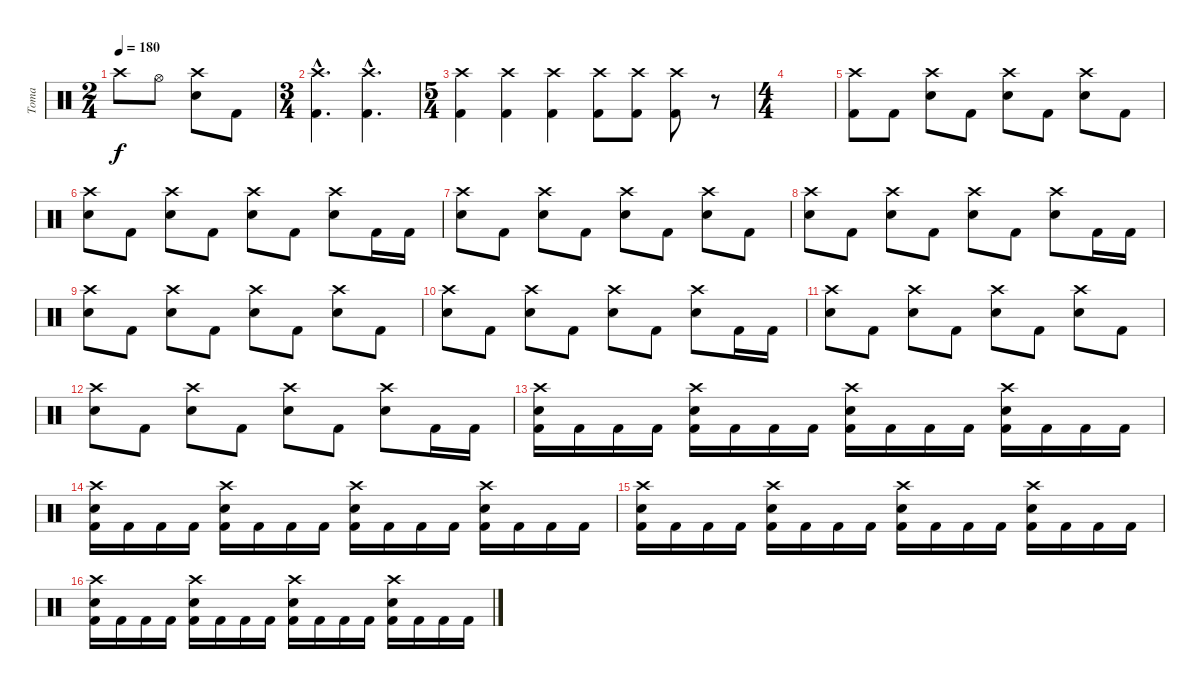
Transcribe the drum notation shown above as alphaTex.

\track ("Toma" "Toma") {instrument percussion}
\staff {score}
\articulation defaults
\ts (2 4)
\tempo 180
\clef neutral
\ks c "Crash high (hit)".8{dy f} "Hi-Hat (open)".8
("Crash high (hit)" "Snare (hit)").8 "Kick (hit) 2".8 |
\ts (3 4)
("Crash high (hit)"{hac} "Kick (hit) 2"{hac}).4{d} ("Crash high (hit)"{hac} "Kick (hit) 2"{hac}).4{d} |
\ts (5 4)
("Crash high (hit)" "Kick (hit) 2").4 ("Crash high (hit)" "Kick (hit) 2").4 ("Crash high (hit)" "Kick (hit) 2").4 ("Crash high (hit)" "Kick (hit) 2").8 ("Crash high (hit)" "Kick (hit) 2").8 ("Crash high (hit)" "Kick (hit) 2").8 r.8 |
\ts (4 4)
|
("Crash high (hit)" "Kick (hit) 2").8 "Kick (hit) 2".8 ("Crash high (hit)" "Electric Snare (hit)").8 "Kick (hit) 2".8 ("Crash high (hit)" "Electric Snare (hit)").8 "Kick (hit) 2".8 ("Crash high (hit)" "Electric Snare (hit)").8 "Kick (hit) 2".8 |
("Crash high (hit)" "Electric Snare (hit)").8 "Kick (hit) 2".8 ("Crash high (hit)" "Electric Snare (hit)").8 "Kick (hit) 2".8 ("Crash high (hit)" "Electric Snare (hit)").8 "Kick (hit) 2".8 ("Crash high (hit)" "Electric Snare (hit)").8 "Kick (hit) 2".16 "Kick (hit) 2".16 |
("Crash high (hit)" "Electric Snare (hit)").8 "Kick (hit) 2".8 ("Crash high (hit)" "Electric Snare (hit)").8 "Kick (hit) 2".8 ("Crash high (hit)" "Electric Snare (hit)").8 "Kick (hit) 2".8 ("Crash high (hit)" "Electric Snare (hit)").8 "Kick (hit) 2".8 |
("Crash high (hit)" "Electric Snare (hit)").8 "Kick (hit) 2".8 ("Crash high (hit)" "Electric Snare (hit)").8 "Kick (hit) 2".8 ("Crash high (hit)" "Electric Snare (hit)").8 "Kick (hit) 2".8 ("Crash high (hit)" "Electric Snare (hit)").8 "Kick (hit) 2".16 "Kick (hit) 2".16 |
("Crash high (hit)" "Electric Snare (hit)").8 "Kick (hit) 2".8 ("Crash high (hit)" "Electric Snare (hit)").8 "Kick (hit) 2".8 ("Crash high (hit)" "Electric Snare (hit)").8 "Kick (hit) 2".8 ("Crash high (hit)" "Electric Snare (hit)").8 "Kick (hit) 2".8 |
("Crash high (hit)" "Electric Snare (hit)").8 "Kick (hit) 2".8 ("Crash high (hit)" "Electric Snare (hit)").8 "Kick (hit) 2".8 ("Crash high (hit)" "Electric Snare (hit)").8 "Kick (hit) 2".8 ("Crash high (hit)" "Electric Snare (hit)").8 "Kick (hit) 2".16 "Kick (hit) 2".16 |
("Crash high (hit)" "Electric Snare (hit)").8 "Kick (hit) 2".8 ("Crash high (hit)" "Electric Snare (hit)").8 "Kick (hit) 2".8 ("Crash high (hit)" "Electric Snare (hit)").8 "Kick (hit) 2".8 ("Crash high (hit)" "Electric Snare (hit)").8 "Kick (hit) 2".8 |
("Crash high (hit)" "Electric Snare (hit)").8 "Kick (hit) 2".8 ("Crash high (hit)" "Electric Snare (hit)").8 "Kick (hit) 2".8 ("Crash high (hit)" "Electric Snare (hit)").8 "Kick (hit) 2".8 ("Crash high (hit)" "Electric Snare (hit)").8 "Kick (hit) 2".16 "Kick (hit) 2".16 |
("Crash high (hit)" "Electric Snare (hit)" "Kick (hit) 2").16 "Kick (hit) 2".16 "Kick (hit) 2".16 "Kick (hit) 2".16 ("Crash high (hit)" "Electric Snare (hit)" "Kick (hit) 2").16 "Kick (hit) 2".16 "Kick (hit) 2".16 "Kick (hit) 2".16 ("Crash high (hit)" "Electric Snare (hit)" "Kick (hit) 2").16 "Kick (hit) 2".16 "Kick (hit) 2".16 "Kick (hit) 2".16 ("Crash high (hit)" "Electric Snare (hit)" "Kick (hit) 2").16 "Kick (hit) 2".16 "Kick (hit) 2".16 "Kick (hit) 2".16 |
("Crash high (hit)" "Electric Snare (hit)" "Kick (hit) 2").16 "Kick (hit) 2".16 "Kick (hit) 2".16 "Kick (hit) 2".16 ("Crash high (hit)" "Electric Snare (hit)" "Kick (hit) 2").16 "Kick (hit) 2".16 "Kick (hit) 2".16 "Kick (hit) 2".16 ("Crash high (hit)" "Electric Snare (hit)" "Kick (hit) 2").16 "Kick (hit) 2".16 "Kick (hit) 2".16 "Kick (hit) 2".16 ("Crash high (hit)" "Electric Snare (hit)" "Kick (hit) 2").16 "Kick (hit) 2".16 "Kick (hit) 2".16 "Kick (hit) 2".16 |
("Crash high (hit)" "Electric Snare (hit)" "Kick (hit) 2").16 "Kick (hit) 2".16 "Kick (hit) 2".16 "Kick (hit) 2".16 ("Crash high (hit)" "Electric Snare (hit)" "Kick (hit) 2").16 "Kick (hit) 2".16 "Kick (hit) 2".16 "Kick (hit) 2".16 ("Crash high (hit)" "Electric Snare (hit)" "Kick (hit) 2").16 "Kick (hit) 2".16 "Kick (hit) 2".16 "Kick (hit) 2".16 ("Crash high (hit)" "Electric Snare (hit)" "Kick (hit) 2").16 "Kick (hit) 2".16 "Kick (hit) 2".16 "Kick (hit) 2".16 |
("Crash high (hit)" "Electric Snare (hit)" "Kick (hit) 2").16 "Kick (hit) 2".16 "Kick (hit) 2".16 "Kick (hit) 2".16 ("Crash high (hit)" "Electric Snare (hit)" "Kick (hit) 2").16 "Kick (hit) 2".16 "Kick (hit) 2".16 "Kick (hit) 2".16 ("Crash high (hit)" "Electric Snare (hit)" "Kick (hit) 2").16 "Kick (hit) 2".16 "Kick (hit) 2".16 "Kick (hit) 2".16 ("Crash high (hit)" "Electric Snare (hit)" "Kick (hit) 2").16 "Kick (hit) 2".16 "Kick (hit) 2".16 "Kick (hit) 2".16
